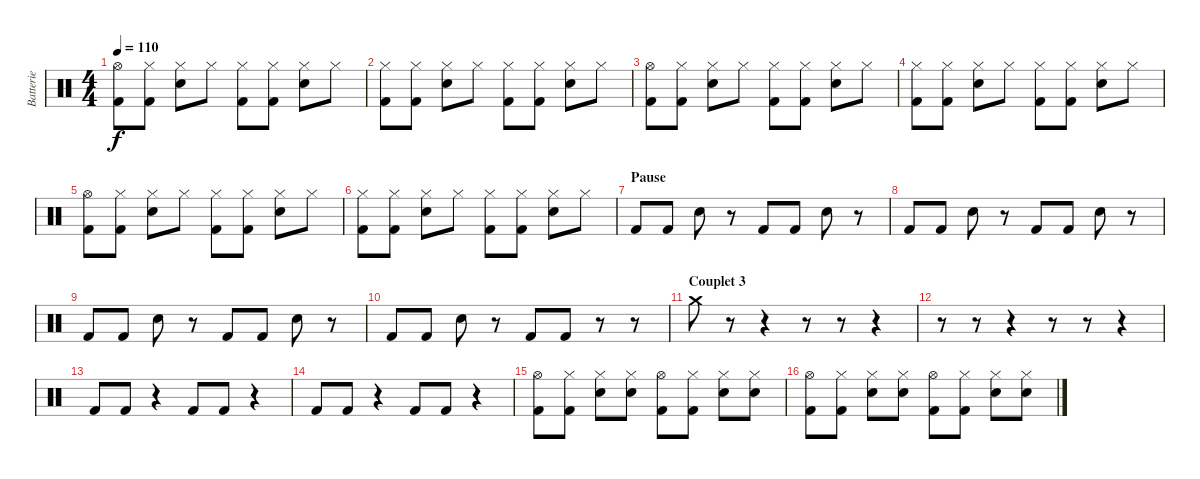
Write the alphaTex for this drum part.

\track ("Batterie" "Batterie") {instrument percussion}
\staff {score}
\articulation defaults
\ts (4 4)
\tempo 110
\clef neutral
\ks c
("Hi-Hat (open)" "Kick (hit) 2").8{dy f} ("Hi-Hat (closed)" "Kick (hit) 2").8 ("Hi-Hat (closed)" "Electric Snare (hit)").8 "Hi-Hat (closed)".8 ("Hi-Hat (closed)" "Kick (hit) 2").8 ("Hi-Hat (closed)" "Kick (hit) 2").8 ("Hi-Hat (closed)" "Electric Snare (hit)").8 "Hi-Hat (closed)".8 |
("Hi-Hat (closed)" "Kick (hit) 2").8 ("Hi-Hat (closed)" "Kick (hit) 2").8 ("Hi-Hat (closed)" "Electric Snare (hit)").8 "Hi-Hat (closed)".8 ("Hi-Hat (closed)" "Kick (hit) 2").8 ("Hi-Hat (closed)" "Kick (hit) 2").8 ("Hi-Hat (closed)" "Electric Snare (hit)").8 "Hi-Hat (closed)".8 |
("Hi-Hat (open)" "Kick (hit) 2").8 ("Hi-Hat (closed)" "Kick (hit) 2").8 ("Hi-Hat (closed)" "Electric Snare (hit)").8 "Hi-Hat (closed)".8 ("Hi-Hat (closed)" "Kick (hit) 2").8 ("Hi-Hat (closed)" "Kick (hit) 2").8 ("Hi-Hat (closed)" "Electric Snare (hit)").8 "Hi-Hat (closed)".8 |
("Hi-Hat (closed)" "Kick (hit) 2").8 ("Hi-Hat (closed)" "Kick (hit) 2").8 ("Hi-Hat (closed)" "Electric Snare (hit)").8 "Hi-Hat (closed)".8 ("Hi-Hat (closed)" "Kick (hit) 2").8 ("Hi-Hat (closed)" "Kick (hit) 2").8 ("Hi-Hat (closed)" "Electric Snare (hit)").8 "Hi-Hat (closed)".8 |
("Hi-Hat (open)" "Kick (hit) 2").8 ("Hi-Hat (closed)" "Kick (hit) 2").8 ("Hi-Hat (closed)" "Electric Snare (hit)").8 "Hi-Hat (closed)".8 ("Hi-Hat (closed)" "Kick (hit) 2").8 ("Hi-Hat (closed)" "Kick (hit) 2").8 ("Hi-Hat (closed)" "Electric Snare (hit)").8 "Hi-Hat (closed)".8 |
("Hi-Hat (closed)" "Kick (hit) 2").8 ("Hi-Hat (closed)" "Kick (hit) 2").8 ("Hi-Hat (closed)" "Electric Snare (hit)").8 "Hi-Hat (closed)".8 ("Hi-Hat (closed)" "Kick (hit) 2").8 ("Hi-Hat (closed)" "Kick (hit) 2").8 ("Hi-Hat (closed)" "Electric Snare (hit)").8 "Hi-Hat (closed)".8 |
\section ("" "Pause ")
"Kick (hit) 2".8 "Kick (hit) 2".8 "Electric Snare (hit)".8 r.8 "Kick (hit) 2".8 "Kick (hit) 2".8 "Electric Snare (hit)".8 r.8 |
"Kick (hit) 2".8 "Kick (hit) 2".8 "Electric Snare (hit)".8 r.8 "Kick (hit) 2".8 "Kick (hit) 2".8 "Electric Snare (hit)".8 r.8 |
"Kick (hit) 2".8 "Kick (hit) 2".8 "Electric Snare (hit)".8 r.8 "Kick (hit) 2".8 "Kick (hit) 2".8 "Electric Snare (hit)".8 r.8 |
"Kick (hit) 2".8 "Kick (hit) 2".8 "Electric Snare (hit)".8 r.8 "Kick (hit) 2".8 "Kick (hit) 2".8 r.8 r.8 |
\section ("" "Couplet 3")
"Crash medium (hit)".8 r.8 r.4 r.8 r.8 r.4 |
r.8 r.8 r.4 r.8 r.8 r.4 |
"Kick (hit) 2".8 "Kick (hit) 2".8 r.4 "Kick (hit) 2".8 "Kick (hit) 2".8 r.4 |
"Kick (hit) 2".8 "Kick (hit) 2".8 r.4 "Kick (hit) 2".8 "Kick (hit) 2".8 r.4 |
("Hi-Hat (open)" "Kick (hit) 2").8 ("Hi-Hat (closed)" "Kick (hit) 2").8 ("Hi-Hat (closed)" "Electric Snare (hit)").8 ("Hi-Hat (closed)" "Electric Snare (hit)").8 ("Hi-Hat (open)" "Kick (hit) 2").8 ("Hi-Hat (closed)" "Kick (hit) 2").8 ("Hi-Hat (closed)" "Electric Snare (hit)").8 ("Hi-Hat (closed)" "Electric Snare (hit)").8 |
("Hi-Hat (open)" "Kick (hit) 2").8 ("Hi-Hat (closed)" "Kick (hit) 2").8 ("Hi-Hat (closed)" "Electric Snare (hit)").8 ("Hi-Hat (closed)" "Electric Snare (hit)").8 ("Hi-Hat (open)" "Kick (hit) 2").8 ("Hi-Hat (closed)" "Kick (hit) 2").8 ("Hi-Hat (closed)" "Electric Snare (hit)").8 ("Hi-Hat (closed)" "Electric Snare (hit)").8
